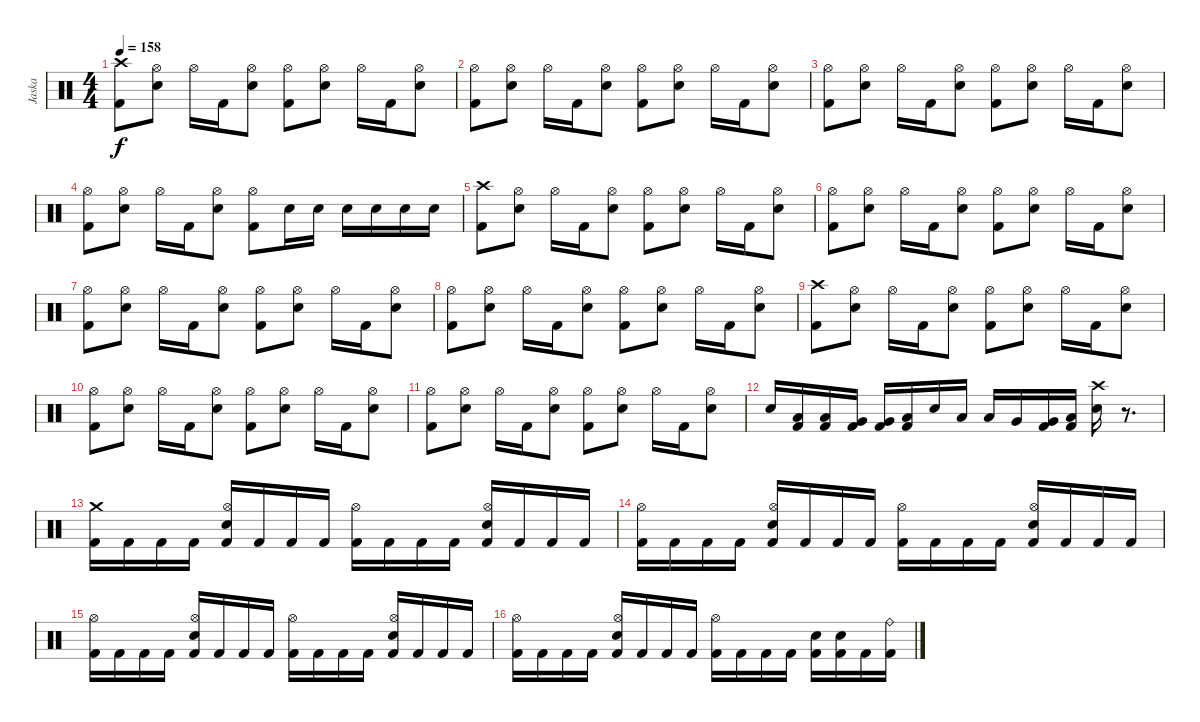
\track ("Jaska" "Jaska") {instrument percussion}
\staff {score}
\articulation defaults
\ts (4 4)
\tempo 158
\clef neutral
\ks c
("Crash high (hit)" "Kick (hit) 2").8{dy f} ("Hi-Hat (open)" "Electric Snare (hit)").8 "Hi-Hat (open)".16 "Kick (hit) 2".16 ("Hi-Hat (open)" "Electric Snare (hit)").8 ("Hi-Hat (open)" "Kick (hit) 2").8 ("Hi-Hat (open)" "Electric Snare (hit)").8 "Hi-Hat (open)".16 "Kick (hit) 2".16 ("Hi-Hat (open)" "Electric Snare (hit)").8 |
("Hi-Hat (open)" "Kick (hit) 2").8 ("Hi-Hat (open)" "Electric Snare (hit)").8 "Hi-Hat (open)".16 "Kick (hit) 2".16 ("Hi-Hat (open)" "Electric Snare (hit)").8 ("Hi-Hat (open)" "Kick (hit) 2").8 ("Hi-Hat (open)" "Electric Snare (hit)").8 "Hi-Hat (open)".16 "Kick (hit) 2".16 ("Hi-Hat (open)" "Electric Snare (hit)").8 |
("Hi-Hat (open)" "Kick (hit) 2").8 ("Hi-Hat (open)" "Electric Snare (hit)").8 "Hi-Hat (open)".16 "Kick (hit) 2".16 ("Hi-Hat (open)" "Electric Snare (hit)").8 ("Hi-Hat (open)" "Kick (hit) 2").8 ("Hi-Hat (open)" "Electric Snare (hit)").8 "Hi-Hat (open)".16 "Kick (hit) 2".16 ("Hi-Hat (open)" "Electric Snare (hit)").8 |
("Hi-Hat (open)" "Kick (hit) 2").8 ("Hi-Hat (open)" "Electric Snare (hit)").8 "Hi-Hat (open)".16 "Kick (hit) 2".16 ("Hi-Hat (open)" "Electric Snare (hit)").8 ("Hi-Hat (open)" "Kick (hit) 2").8 "Electric Snare (hit)".16 "Electric Snare (hit)".16 "Electric Snare (hit)".16 "Electric Snare (hit)".16 "Electric Snare (hit)".16 "Electric Snare (hit)".16 |
("Crash high (hit)" "Kick (hit) 2").8 ("Hi-Hat (open)" "Electric Snare (hit)").8 "Hi-Hat (open)".16 "Kick (hit) 2".16 ("Hi-Hat (open)" "Electric Snare (hit)").8 ("Hi-Hat (open)" "Kick (hit) 2").8 ("Hi-Hat (open)" "Electric Snare (hit)").8 "Hi-Hat (open)".16 "Kick (hit) 2".16 ("Hi-Hat (open)" "Electric Snare (hit)").8 |
("Hi-Hat (open)" "Kick (hit) 2").8 ("Hi-Hat (open)" "Electric Snare (hit)").8 "Hi-Hat (open)".16 "Kick (hit) 2".16 ("Hi-Hat (open)" "Electric Snare (hit)").8 ("Hi-Hat (open)" "Kick (hit) 2").8 ("Hi-Hat (open)" "Electric Snare (hit)").8 "Hi-Hat (open)".16 "Kick (hit) 2".16 ("Hi-Hat (open)" "Electric Snare (hit)").8 |
("Hi-Hat (open)" "Kick (hit) 2").8 ("Hi-Hat (open)" "Electric Snare (hit)").8 "Hi-Hat (open)".16 "Kick (hit) 2".16 ("Hi-Hat (open)" "Electric Snare (hit)").8 ("Hi-Hat (open)" "Kick (hit) 2").8 ("Hi-Hat (open)" "Electric Snare (hit)").8 "Hi-Hat (open)".16 "Kick (hit) 2".16 ("Hi-Hat (open)" "Electric Snare (hit)").8 |
("Hi-Hat (open)" "Kick (hit) 2").8 ("Hi-Hat (open)" "Electric Snare (hit)").8 "Hi-Hat (open)".16 "Kick (hit) 2".16 ("Hi-Hat (open)" "Electric Snare (hit)").8 ("Hi-Hat (open)" "Kick (hit) 2").8 ("Hi-Hat (open)" "Electric Snare (hit)").8 "Hi-Hat (open)".16 "Kick (hit) 2".16 ("Hi-Hat (open)" "Electric Snare (hit)").8 |
("Crash high (hit)" "Kick (hit) 2").8 ("Hi-Hat (open)" "Electric Snare (hit)").8 "Hi-Hat (open)".16 "Kick (hit) 2".16 ("Hi-Hat (open)" "Electric Snare (hit)").8 ("Hi-Hat (open)" "Kick (hit) 2").8 ("Hi-Hat (open)" "Electric Snare (hit)").8 "Hi-Hat (open)".16 "Kick (hit) 2".16 ("Hi-Hat (open)" "Electric Snare (hit)").8 |
("Hi-Hat (open)" "Kick (hit) 2").8 ("Hi-Hat (open)" "Electric Snare (hit)").8 "Hi-Hat (open)".16 "Kick (hit) 2".16 ("Hi-Hat (open)" "Electric Snare (hit)").8 ("Hi-Hat (open)" "Kick (hit) 2").8 ("Hi-Hat (open)" "Electric Snare (hit)").8 "Hi-Hat (open)".16 "Kick (hit) 2".16 ("Hi-Hat (open)" "Electric Snare (hit)").8 |
("Hi-Hat (open)" "Kick (hit) 2").8 ("Hi-Hat (open)" "Electric Snare (hit)").8 "Hi-Hat (open)".16 "Kick (hit) 2".16 ("Hi-Hat (open)" "Electric Snare (hit)").8 ("Hi-Hat (open)" "Kick (hit) 2").8 ("Hi-Hat (open)" "Electric Snare (hit)").8 "Hi-Hat (open)".16 "Kick (hit) 2".16 ("Hi-Hat (open)" "Electric Snare (hit)").8 |
"Electric Snare (hit)".16 ("Low Tom (hit)" "Kick (hit) 2").16 ("Low Tom (hit)" "Kick (hit) 2").16 ("Very Low Tom (hit)" "Kick (hit) 2").16 ("Very Low Tom (hit)" "Kick (hit) 2").16 ("Low Floor Tom (hit)" "Kick (hit) 2").16 "Electric Snare (hit)".16 "Low Tom (hit)".16 "Low Tom (hit)".16 "Very Low Tom (hit)".16 ("Very Low Tom (hit)" "Kick (hit) 2").16 ("Low Floor Tom (hit)" "Kick (hit) 2").16 ("Crash high (hit)" "Electric Snare (hit)").16 r.8{d} |
("Crash medium (hit)" "Kick (hit) 2").16 "Kick (hit) 2".16 "Kick (hit) 2".16 "Kick (hit) 2".16 ("Hi-Hat (open)" "Electric Snare (hit)" "Kick (hit) 2").16 "Kick (hit) 2".16 "Kick (hit) 2".16 "Kick (hit) 2".16 ("Hi-Hat (open)" "Kick (hit) 2").16 "Kick (hit) 2".16 "Kick (hit) 2".16 "Kick (hit) 2".16 ("Hi-Hat (open)" "Electric Snare (hit)" "Kick (hit) 2").16 "Kick (hit) 2".16 "Kick (hit) 2".16 "Kick (hit) 2".16 |
("Hi-Hat (open)" "Kick (hit) 2").16 "Kick (hit) 2".16 "Kick (hit) 2".16 "Kick (hit) 2".16 ("Hi-Hat (open)" "Electric Snare (hit)" "Kick (hit) 2").16 "Kick (hit) 2".16 "Kick (hit) 2".16 "Kick (hit) 2".16 ("Hi-Hat (open)" "Kick (hit) 2").16 "Kick (hit) 2".16 "Kick (hit) 2".16 "Kick (hit) 2".16 ("Hi-Hat (open)" "Electric Snare (hit)" "Kick (hit) 2").16 "Kick (hit) 2".16 "Kick (hit) 2".16 "Kick (hit) 2".16 |
("Hi-Hat (open)" "Kick (hit) 2").16 "Kick (hit) 2".16 "Kick (hit) 2".16 "Kick (hit) 2".16 ("Hi-Hat (open)" "Electric Snare (hit)" "Kick (hit) 2").16 "Kick (hit) 2".16 "Kick (hit) 2".16 "Kick (hit) 2".16 ("Hi-Hat (open)" "Kick (hit) 2").16 "Kick (hit) 2".16 "Kick (hit) 2".16 "Kick (hit) 2".16 ("Hi-Hat (open)" "Electric Snare (hit)" "Kick (hit) 2").16 "Kick (hit) 2".16 "Kick (hit) 2".16 "Kick (hit) 2".16 |
("Hi-Hat (open)" "Kick (hit) 2").16 "Kick (hit) 2".16 "Kick (hit) 2".16 "Kick (hit) 2".16 ("Hi-Hat (open)" "Electric Snare (hit)" "Kick (hit) 2").16 "Kick (hit) 2".16 "Kick (hit) 2".16 "Kick (hit) 2".16 ("Hi-Hat (open)" "Kick (hit) 2").16 "Kick (hit) 2".16 "Kick (hit) 2".16 "Kick (hit) 2".16 ("Electric Snare (hit)" "Kick (hit) 2").16 ("Electric Snare (hit)" "Kick (hit) 2").16 "Kick (hit) 2".16 ("Ride (bell)" "Kick (hit) 2").16
